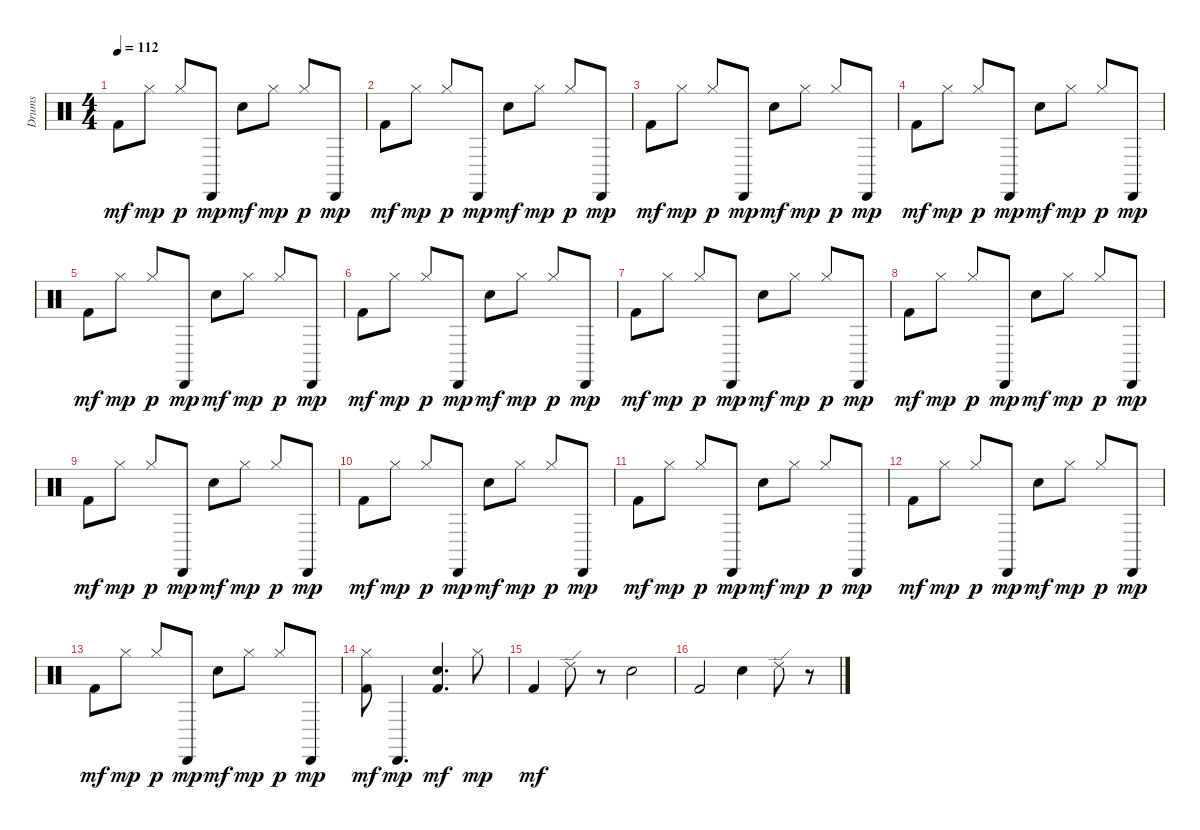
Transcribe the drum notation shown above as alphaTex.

\track ("Drums" "Drums") {instrument percussion}
\staff {score}
\articulation defaults
\ts (4 4)
\tempo 112
\clef neutral
\ks c "Kick (hit) 2".8{dy mf} "Hi-Hat (closed)".8{dy mp} "Hi-Hat (closed)".8{dy p} "Cabasa (hit)".8{dy mp} "Snare (hit) 2".8{dy mf} "Hi-Hat (closed)".8{dy mp} "Hi-Hat (closed)".8{dy p} "Cabasa (hit)".8{dy mp}
|
"Kick (hit) 2".8{dy mf} "Hi-Hat (closed)".8{dy mp} "Hi-Hat (closed)".8{dy p} "Cabasa (hit)".8{dy mp} "Snare (hit) 2".8{dy mf} "Hi-Hat (closed)".8{dy mp} "Hi-Hat (closed)".8{dy p} "Cabasa (hit)".8{dy mp} |
"Kick (hit) 2".8{dy mf} "Hi-Hat (closed)".8{dy mp} "Hi-Hat (closed)".8{dy p} "Cabasa (hit)".8{dy mp} "Snare (hit) 2".8{dy mf} "Hi-Hat (closed)".8{dy mp} "Hi-Hat (closed)".8{dy p} "Cabasa (hit)".8{dy mp} |
"Kick (hit) 2".8{dy mf} "Hi-Hat (closed)".8{dy mp} "Hi-Hat (closed)".8{dy p} "Cabasa (hit)".8{dy mp} "Snare (hit) 2".8{dy mf} "Hi-Hat (closed)".8{dy mp} "Hi-Hat (closed)".8{dy p} "Cabasa (hit)".8{dy mp} |
"Kick (hit) 2".8{dy mf} "Hi-Hat (closed)".8{dy mp} "Hi-Hat (closed)".8{dy p} "Cabasa (hit)".8{dy mp} "Snare (hit) 2".8{dy mf} "Hi-Hat (closed)".8{dy mp} "Hi-Hat (closed)".8{dy p} "Cabasa (hit)".8{dy mp} |
"Kick (hit) 2".8{dy mf} "Hi-Hat (closed)".8{dy mp} "Hi-Hat (closed)".8{dy p} "Cabasa (hit)".8{dy mp} "Snare (hit) 2".8{dy mf} "Hi-Hat (closed)".8{dy mp} "Hi-Hat (closed)".8{dy p} "Cabasa (hit)".8{dy mp} |
"Kick (hit) 2".8{dy mf} "Hi-Hat (closed)".8{dy mp} "Hi-Hat (closed)".8{dy p} "Cabasa (hit)".8{dy mp} "Snare (hit) 2".8{dy mf} "Hi-Hat (closed)".8{dy mp} "Hi-Hat (closed)".8{dy p} "Cabasa (hit)".8{dy mp} |
"Kick (hit) 2".8{dy mf} "Hi-Hat (closed)".8{dy mp} "Hi-Hat (closed)".8{dy p} "Cabasa (hit)".8{dy mp} "Snare (hit) 2".8{dy mf} "Hi-Hat (closed)".8{dy mp} "Hi-Hat (closed)".8{dy p} "Cabasa (hit)".8{dy mp} |
"Kick (hit) 2".8{dy mf} "Hi-Hat (closed)".8{dy mp} "Hi-Hat (closed)".8{dy p} "Cabasa (hit)".8{dy mp} "Snare (hit) 2".8{dy mf} "Hi-Hat (closed)".8{dy mp} "Hi-Hat (closed)".8{dy p} "Cabasa (hit)".8{dy mp} |
"Kick (hit) 2".8{dy mf} "Hi-Hat (closed)".8{dy mp} "Hi-Hat (closed)".8{dy p} "Cabasa (hit)".8{dy mp} "Snare (hit) 2".8{dy mf} "Hi-Hat (closed)".8{dy mp} "Hi-Hat (closed)".8{dy p} "Cabasa (hit)".8{dy mp} |
"Kick (hit) 2".8{dy mf} "Hi-Hat (closed)".8{dy mp} "Hi-Hat (closed)".8{dy p} "Cabasa (hit)".8{dy mp} "Snare (hit) 2".8{dy mf} "Hi-Hat (closed)".8{dy mp} "Hi-Hat (closed)".8{dy p} "Cabasa (hit)".8{dy mp} |
"Kick (hit) 2".8{dy mf} "Hi-Hat (closed)".8{dy mp} "Hi-Hat (closed)".8{dy p} "Cabasa (hit)".8{dy mp} "Snare (hit) 2".8{dy mf} "Hi-Hat (closed)".8{dy mp} "Hi-Hat (closed)".8{dy p} "Cabasa (hit)".8{dy mp} |
"Kick (hit) 2".8{dy mf} "Hi-Hat (closed)".8{dy mp} "Hi-Hat (closed)".8{dy p} "Cabasa (hit)".8{dy mp} "Snare (hit) 2".8{dy mf} "Hi-Hat (closed)".8{dy mp} "Hi-Hat (closed)".8{dy p} "Cabasa (hit)".8{dy mp} |
("Hi-Hat (closed)" "Kick (hit) 2").8{dy mf} "Cabasa (hit)".4{d dy mp} ("Kick (hit) 2" "Snare (hit) 2").4{d dy mf} "Hi-Hat (closed)".8{dy mp} |
"Kick (hit) 2".4{dy mf} "Ride (edge) 2".8 r.8 "Snare (hit) 2".2 |
"Kick (hit) 2".2 "Snare (hit) 2".4 "Ride (edge) 2".8 r.8
